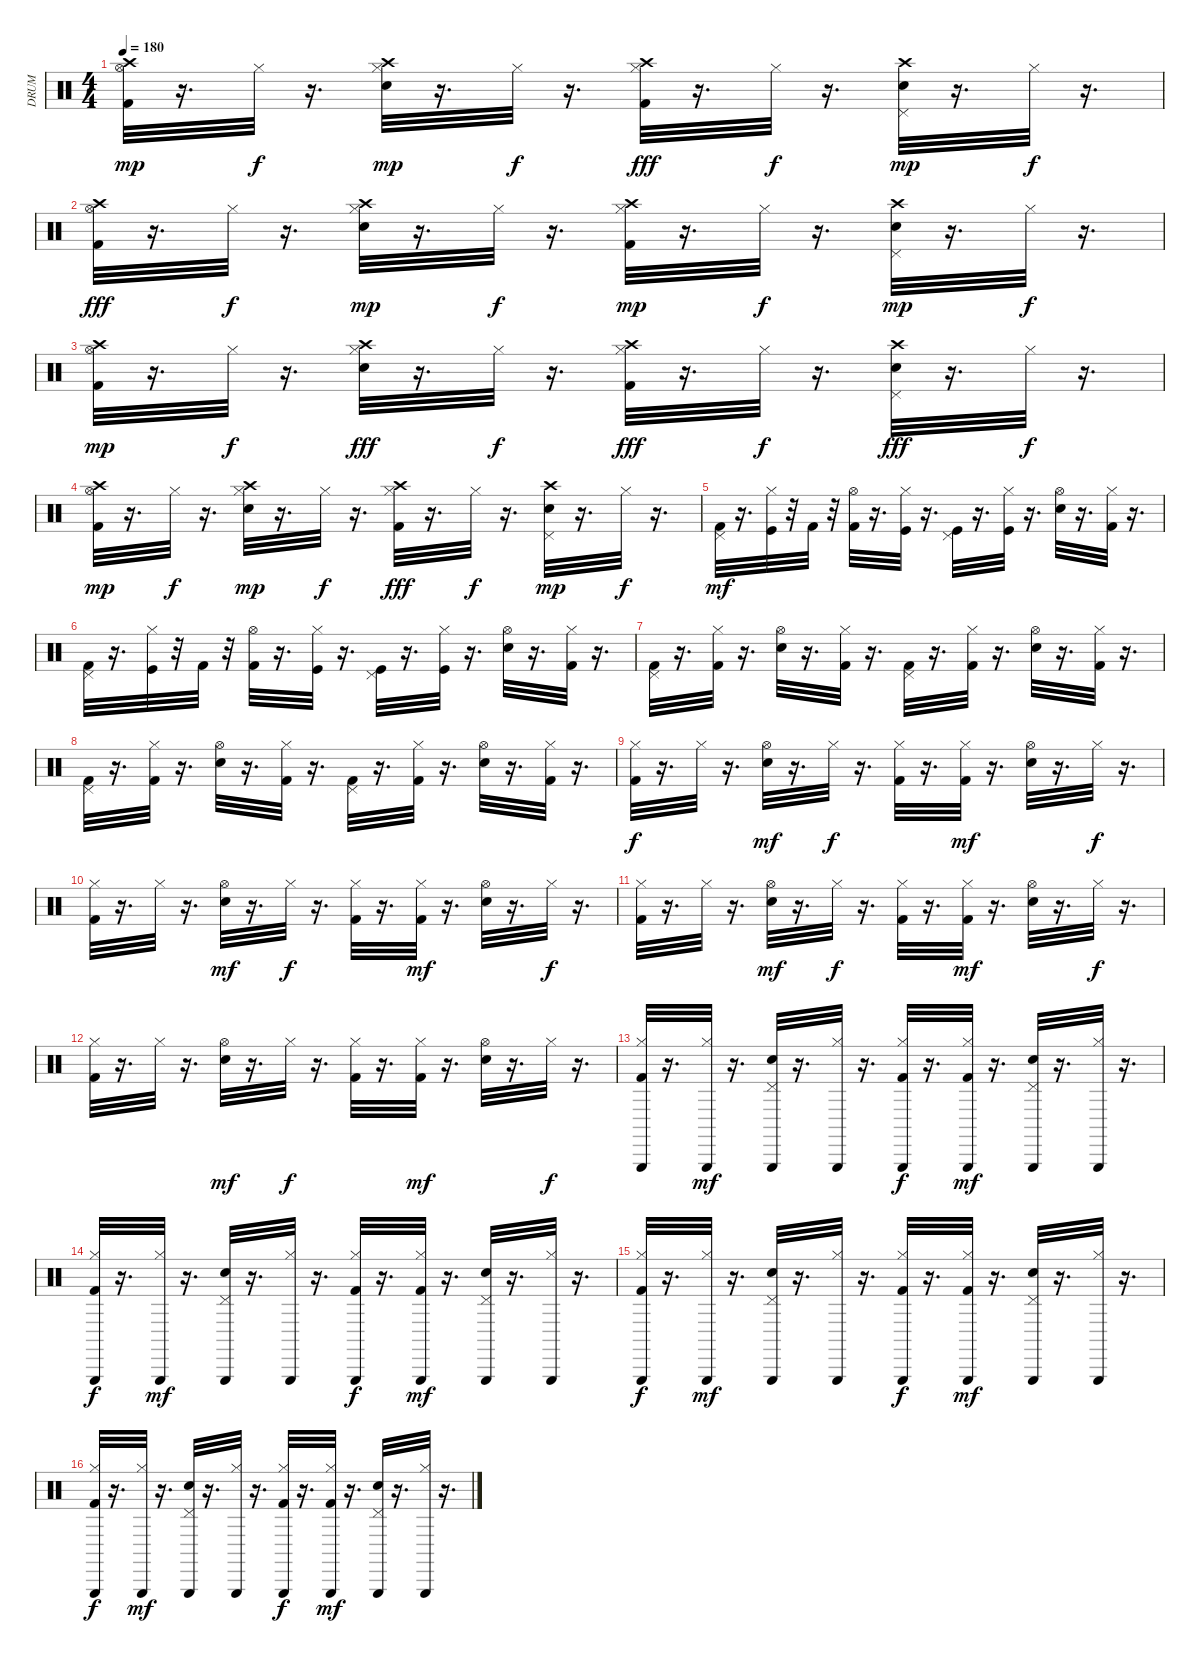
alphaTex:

\track ("DRUM" "DRUM") {instrument percussion}
\staff {score}
\articulation defaults
\ts (4 4)
\tempo 180
\clef neutral
\ks c
("Kick (hit) 2" "Hi-Hat (open)" "Crash high (hit)").32{dy mp} r.16{d} "Hi-Hat (closed)".32{dy f} r.16{d} ("Hi-Hat (closed)" "Snare (hit) 2" "Crash high (hit)").32{dy mp} r.16{d} "Hi-Hat (closed)".32{dy f} r.16{d} ("Crash high (hit)" "Hi-Hat (closed)" "Kick (hit) 2").32{dy fff} r.16{d} "Hi-Hat (closed)".32{dy f} r.16{d} ("Pedal Hi-Hat (hit)" "Crash high (hit)" "Snare (hit) 2").32{dy mp} r.16{d} "Hi-Hat (closed)".32{dy f} r.16{d} |
("Crash high (hit)" "Hi-Hat (open)" "Kick (hit) 2").32{dy fff} r.16{d} "Hi-Hat (closed)".32{dy f} r.16{d} ("Hi-Hat (closed)" "Crash high (hit)" "Snare (hit) 2").32{dy mp} r.16{d} "Hi-Hat (closed)".32{dy f} r.16{d} ("Hi-Hat (closed)" "Crash high (hit)" "Kick (hit) 2").32{dy mp} r.16{d} "Hi-Hat (closed)".32{dy f} r.16{d} ("Pedal Hi-Hat (hit)" "Snare (hit) 2" "Crash high (hit)").32{dy mp} r.16{d} "Hi-Hat (closed)".32{dy f} r.16{d} |
("Kick (hit) 2" "Hi-Hat (open)" "Crash high (hit)").32{dy mp} r.16{d} "Hi-Hat (closed)".32{dy f} r.16{d} ("Snare (hit) 2" "Crash high (hit)" "Hi-Hat (closed)").32{dy fff} r.16{d} "Hi-Hat (closed)".32{dy f} r.16{d} ("Crash high (hit)" "Hi-Hat (closed)" "Kick (hit) 2").32{dy fff} r.16{d} "Hi-Hat (closed)".32{dy f} r.16{d} ("Snare (hit) 2" "Crash high (hit)" "Pedal Hi-Hat (hit)").32{dy fff} r.16{d} "Hi-Hat (closed)".32{dy f} r.16{d} |
("Kick (hit) 2" "Hi-Hat (open)" "Crash high (hit)").32{dy mp} r.16{d} "Hi-Hat (closed)".32{dy f} r.16{d} ("Hi-Hat (closed)" "Crash high (hit)" "Snare (hit) 2").32{dy mp} r.16{d} "Hi-Hat (closed)".32{dy f} r.16{d} ("Kick (hit) 2" "Crash high (hit)" "Hi-Hat (closed)").32{dy fff} r.16{d} "Hi-Hat (closed)".32{dy f} r.16{d} ("Pedal Hi-Hat (hit)" "Crash high (hit)" "Snare (hit) 2").32{dy mp} r.16{d} "Hi-Hat (closed)".32{dy f} r.16{d} |
("Kick (hit) 2" "Pedal Hi-Hat (hit)").32{dy mf} r.16{d} ("Hi-Hat (closed)" "Kick (hit)").32 r.32 "Kick (hit) 2".32 r.32 ("Kick (hit) 2" "Hi-Hat (open)").32 r.16{d} ("Kick (hit)" "Hi-Hat (closed)").32 r.16{d} ("Pedal Hi-Hat (hit)" "Kick (hit)").32 r.16{d} ("Hi-Hat (closed)" "Kick (hit)").32 r.16{d} ("Hi-Hat (open)" "Snare (hit) 2").32 r.16{d} ("Kick (hit) 2" "Hi-Hat (closed)").32 r.16{d} |
("Kick (hit) 2" "Pedal Hi-Hat (hit)").32 r.16{d} ("Hi-Hat (closed)" "Kick (hit)").32 r.32 "Kick (hit) 2".32 r.32 ("Kick (hit) 2" "Hi-Hat (open)").32 r.16{d} ("Hi-Hat (closed)" "Kick (hit)").32 r.16{d} ("Kick (hit)" "Pedal Hi-Hat (hit)").32 r.16{d} ("Kick (hit)" "Hi-Hat (closed)").32 r.16{d} ("Hi-Hat (open)" "Snare (hit) 2").32 r.16{d} ("Kick (hit) 2" "Hi-Hat (closed)").32 r.16{d} |
("Kick (hit) 2" "Pedal Hi-Hat (hit)").32 r.16{d} ("Hi-Hat (closed)" "Kick (hit) 2").32 r.16{d} ("Snare (hit) 2" "Hi-Hat (open)").32 r.16{d} ("Kick (hit) 2" "Hi-Hat (closed)").32 r.16{d} ("Kick (hit) 2" "Pedal Hi-Hat (hit)").32 r.16{d} ("Hi-Hat (closed)" "Kick (hit) 2").32 r.16{d} ("Snare (hit) 2" "Hi-Hat (open)").32 r.16{d} ("Hi-Hat (closed)" "Kick (hit) 2").32 r.16{d} |
("Pedal Hi-Hat (hit)" "Kick (hit) 2").32 r.16{d} ("Hi-Hat (closed)" "Kick (hit) 2").32 r.16{d} ("Hi-Hat (open)" "Snare (hit) 2").32 r.16{d} ("Hi-Hat (closed)" "Kick (hit) 2").32 r.16{d} ("Kick (hit) 2" "Pedal Hi-Hat (hit)").32 r.16{d} ("Hi-Hat (closed)" "Kick (hit) 2").32 r.16{d} ("Hi-Hat (open)" "Snare (hit) 2").32 r.16{d} ("Kick (hit) 2" "Hi-Hat (closed)").32 r.16{d} |
("Kick (hit) 2" "Hi-Hat (closed)").32{dy f} r.16{d} "Hi-Hat (closed)".32 r.16{d} ("Snare (hit) 2" "Hi-Hat (open)").32{dy mf} r.16{d} "Hi-Hat (closed)".32{dy f} r.16{d} ("Kick (hit) 2" "Hi-Hat (closed)").32 r.16{d} ("Kick (hit) 2" "Hi-Hat (closed)").32{dy mf} r.16{d} ("Snare (hit) 2" "Hi-Hat (open)").32 r.16{d} "Hi-Hat (closed)".32{dy f} r.16{d} |
("Kick (hit) 2" "Hi-Hat (closed)").32 r.16{d} "Hi-Hat (closed)".32 r.16{d} ("Snare (hit) 2" "Hi-Hat (open)").32{dy mf} r.16{d} "Hi-Hat (closed)".32{dy f} r.16{d} ("Kick (hit) 2" "Hi-Hat (closed)").32 r.16{d} ("Kick (hit) 2" "Hi-Hat (closed)").32{dy mf} r.16{d} ("Snare (hit) 2" "Hi-Hat (open)").32 r.16{d} "Hi-Hat (closed)".32{dy f} r.16{d} |
("Kick (hit) 2" "Hi-Hat (closed)").32 r.16{d} "Hi-Hat (closed)".32 r.16{d} ("Snare (hit) 2" "Hi-Hat (open)").32{dy mf} r.16{d} "Hi-Hat (closed)".32{dy f} r.16{d} ("Kick (hit) 2" "Hi-Hat (closed)").32 r.16{d} ("Kick (hit) 2" "Hi-Hat (closed)").32{dy mf} r.16{d} ("Snare (hit) 2" "Hi-Hat (open)").32 r.16{d} "Hi-Hat (closed)".32{dy f} r.16{d} |
("Kick (hit) 2" "Hi-Hat (closed)").32 r.16{d} "Hi-Hat (closed)".32 r.16{d} ("Snare (hit) 2" "Hi-Hat (open)").32{dy mf} r.16{d} "Hi-Hat (closed)".32{dy f} r.16{d} ("Kick (hit) 2" "Hi-Hat (closed)").32 r.16{d} ("Kick (hit) 2" "Hi-Hat (closed)").32{dy mf} r.16{d} ("Snare (hit) 2" "Hi-Hat (open)").32 r.16{d} "Hi-Hat (closed)".32{dy f} r.16{d} |
("Triangle (hit)" "Hi-Hat (closed)" "Kick (hit) 2").32 r.16{d} ("Triangle (hit)" "Hi-Hat (closed)").32{dy mf} r.16{d} ("Triangle (hit)" "Snare (hit) 2" "Pedal Hi-Hat (hit)").32 r.16{d} ("Triangle (hit)" "Hi-Hat (closed)").32 r.16{d} ("Triangle (hit)" "Hi-Hat (closed)" "Kick (hit) 2").32{dy f} r.16{d} ("Triangle (hit)" "Hi-Hat (closed)" "Kick (hit) 2").32{dy mf} r.16{d} ("Triangle (hit)" "Pedal Hi-Hat (hit)" "Snare (hit) 2").32 r.16{d} ("Triangle (hit)" "Hi-Hat (closed)").32 r.16{d} |
("Triangle (hit)" "Hi-Hat (closed)" "Kick (hit) 2").32{dy f} r.16{d} ("Hi-Hat (closed)" "Triangle (hit)").32{dy mf} r.16{d} ("Triangle (hit)" "Snare (hit) 2" "Pedal Hi-Hat (hit)").32 r.16{d} ("Hi-Hat (closed)" "Triangle (hit)").32 r.16{d} ("Triangle (hit)" "Hi-Hat (closed)" "Kick (hit) 2").32{dy f} r.16{d} ("Hi-Hat (closed)" "Triangle (hit)" "Kick (hit) 2").32{dy mf} r.16{d} ("Triangle (hit)" "Snare (hit) 2" "Pedal Hi-Hat (hit)").32 r.16{d} ("Triangle (hit)" "Hi-Hat (closed)").32 r.16{d} |
("Triangle (hit)" "Hi-Hat (closed)" "Kick (hit) 2").32{dy f} r.16{d} ("Triangle (hit)" "Hi-Hat (closed)").32{dy mf} r.16{d} ("Snare (hit) 2" "Pedal Hi-Hat (hit)" "Triangle (hit)").32 r.16{d} ("Triangle (hit)" "Hi-Hat (closed)").32 r.16{d} ("Triangle (hit)" "Kick (hit) 2" "Hi-Hat (closed)").32{dy f} r.16{d} ("Triangle (hit)" "Kick (hit) 2" "Hi-Hat (closed)").32{dy mf} r.16{d} ("Pedal Hi-Hat (hit)" "Snare (hit) 2" "Triangle (hit)").32 r.16{d} ("Hi-Hat (closed)" "Triangle (hit)").32 r.16{d} |
("Triangle (hit)" "Hi-Hat (closed)" "Kick (hit) 2").32{dy f} r.16{d} ("Triangle (hit)" "Hi-Hat (closed)").32{dy mf} r.16{d} ("Snare (hit) 2" "Pedal Hi-Hat (hit)" "Triangle (hit)").32 r.16{d} ("Triangle (hit)" "Hi-Hat (closed)").32 r.16{d} ("Triangle (hit)" "Hi-Hat (closed)" "Kick (hit) 2").32{dy f} r.16{d} ("Triangle (hit)" "Hi-Hat (closed)" "Kick (hit) 2").32{dy mf} r.16{d} ("Pedal Hi-Hat (hit)" "Snare (hit) 2" "Triangle (hit)").32 r.16{d} ("Triangle (hit)" "Hi-Hat (closed)").32 r.16{d}
